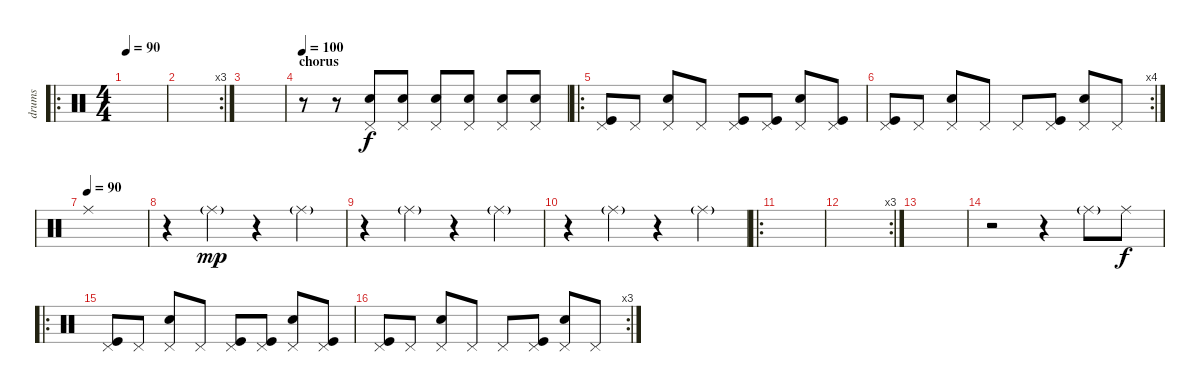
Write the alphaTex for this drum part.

\track ("drums" "drums") {instrument percussion}
\staff {score}
\articulation defaults
\ro
\ts (4 4)
\tempo 90
\clef neutral
\ks c
|
\rc 3
|
|
\section ("" "chorus")
\tempo 100
r.8 r.8 ("Electric Snare (hit)" "Pedal Hi-Hat (hit)").8 ("Electric Snare (hit)" "Pedal Hi-Hat (hit)").8 ("Electric Snare (hit)" "Pedal Hi-Hat (hit)").8 ("Electric Snare (hit)" "Pedal Hi-Hat (hit)").8 ("Electric Snare (hit)" "Pedal Hi-Hat (hit)").8 ("Electric Snare (hit)" "Pedal Hi-Hat (hit)").8 |
\ro
("Kick (hit)" "Pedal Hi-Hat (hit)").8 "Pedal Hi-Hat (hit)".8 ("Electric Snare (hit)" "Pedal Hi-Hat (hit)").8 "Pedal Hi-Hat (hit)".8 ("Kick (hit)" "Pedal Hi-Hat (hit)").8 ("Kick (hit)" "Pedal Hi-Hat (hit)").8 ("Electric Snare (hit)" "Pedal Hi-Hat (hit)").8 ("Kick (hit)" "Pedal Hi-Hat (hit)").8 |
\rc 4
("Kick (hit)" "Pedal Hi-Hat (hit)").8 "Pedal Hi-Hat (hit)".8 ("Electric Snare (hit)" "Pedal Hi-Hat (hit)").8 "Pedal Hi-Hat (hit)".8 "Pedal Hi-Hat (hit)".8 ("Kick (hit)" "Pedal Hi-Hat (hit)").8 ("Electric Snare (hit)" "Pedal Hi-Hat (hit)").8 "Pedal Hi-Hat (hit)".8 |
\tempo (90)
"Ride (middle)".1 |
r.4 "Ride (middle)"{g}.4{dy mp} r.4 "Ride (middle)"{g}.4 |
r.4 "Ride (middle)"{g}.4 r.4 "Ride (middle)"{g}.4 |
r.4 "Ride (middle)"{g}.4 r.4 "Ride (middle)"{g}.4 |
\ro
|
\rc 3
|
|
r.2 r.4 "Ride (middle)"{g}.8 "Ride (middle)".8{dy f} |
\ro
("Kick (hit)" "Pedal Hi-Hat (hit)").8 "Pedal Hi-Hat (hit)".8 ("Electric Snare (hit)" "Pedal Hi-Hat (hit)").8 "Pedal Hi-Hat (hit)".8 ("Kick (hit)" "Pedal Hi-Hat (hit)").8 ("Kick (hit)" "Pedal Hi-Hat (hit)").8 ("Electric Snare (hit)" "Pedal Hi-Hat (hit)").8 ("Kick (hit)" "Pedal Hi-Hat (hit)").8 |
\rc 3
("Kick (hit)" "Pedal Hi-Hat (hit)").8 "Pedal Hi-Hat (hit)".8 ("Electric Snare (hit)" "Pedal Hi-Hat (hit)").8 "Pedal Hi-Hat (hit)".8 "Pedal Hi-Hat (hit)".8 ("Kick (hit)" "Pedal Hi-Hat (hit)").8 ("Electric Snare (hit)" "Pedal Hi-Hat (hit)").8 "Pedal Hi-Hat (hit)".8
